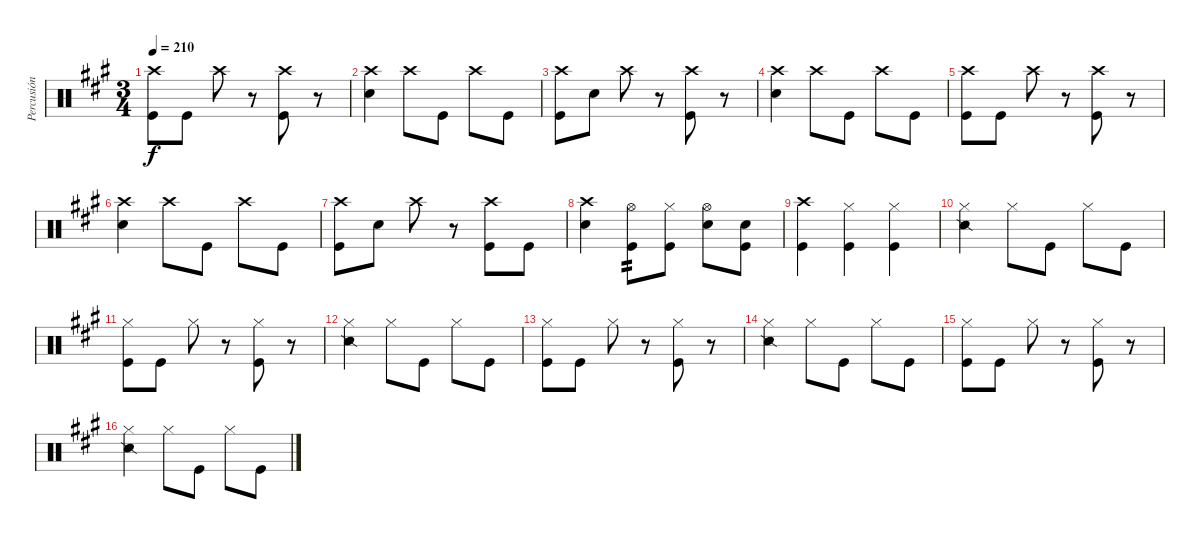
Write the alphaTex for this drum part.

\track ("Percusión" "Percusión") {instrument percussion}
\staff {score}
\articulation defaults
\ts (3 4)
\tempo 210
\clef neutral
\ks a
("Crash high (hit)" "Kick (hit)").8{dy f} "Kick (hit)".8 "Crash high (hit)".8 r.8 ("Crash high (hit)" "Kick (hit)").8 r.8 |
("Crash high (hit)" "Electric Snare (hit)").4 "Crash high (hit)".8 "Kick (hit)".8 "Crash high (hit)".8 "Kick (hit)".8 |
("Crash high (hit)" "Kick (hit)").8 "Electric Snare (hit)".8 "Crash high (hit)".8 r.8 ("Crash high (hit)" "Kick (hit)").8 r.8 |
("Crash high (hit)" "Electric Snare (hit)").4 "Crash high (hit)".8 "Kick (hit)".8 "Crash high (hit)".8 "Kick (hit)".8 |
("Crash high (hit)" "Kick (hit)").8 "Kick (hit)".8 "Crash high (hit)".8 r.8 ("Crash high (hit)" "Kick (hit)").8 r.8 |
("Crash high (hit)" "Electric Snare (hit)").4 "Crash high (hit)".8 "Kick (hit)".8 "Crash high (hit)".8 "Kick (hit)".8 |
("Crash high (hit)" "Kick (hit)").8 "Electric Snare (hit)".8 "Crash high (hit)".8 r.8 ("Crash high (hit)" "Kick (hit)").8 "Kick (hit)".8 |
("Crash high (hit)" "Electric Snare (hit)").4 ("Hi-Hat (open)" "Kick (hit)").8{tp 2} ("Hi-Hat (closed)" "Kick (hit)").8 ("Hi-Hat (open)" "Electric Snare (hit)").8 ("Electric Snare (hit)" "Kick (hit)").8 |
("Crash high (hit)" "Kick (hit)").4 ("Hi-Hat (closed)" "Kick (hit)").4 ("Hi-Hat (closed)" "Kick (hit)").4 |
("Hi-Hat (closed)" "Snare (side stick) 2").4 "Hi-Hat (closed)".8 "Kick (hit)".8 "Hi-Hat (closed)".8 "Kick (hit)".8 |
("Hi-Hat (closed)" "Kick (hit)").8 "Kick (hit)".8 "Hi-Hat (closed)".8 r.8 ("Hi-Hat (closed)" "Kick (hit)").8 r.8 |
("Hi-Hat (closed)" "Snare (side stick) 2").4 "Hi-Hat (closed)".8 "Kick (hit)".8 "Hi-Hat (closed)".8 "Kick (hit)".8 |
("Hi-Hat (closed)" "Kick (hit)").8 "Kick (hit)".8 "Hi-Hat (closed)".8 r.8 ("Hi-Hat (closed)" "Kick (hit)").8 r.8 |
("Hi-Hat (closed)" "Snare (side stick) 2").4 "Hi-Hat (closed)".8 "Kick (hit)".8 "Hi-Hat (closed)".8 "Kick (hit)".8 |
("Hi-Hat (closed)" "Kick (hit)").8 "Kick (hit)".8 "Hi-Hat (closed)".8 r.8 ("Hi-Hat (closed)" "Kick (hit)").8 r.8 |
("Hi-Hat (closed)" "Snare (side stick) 2").4 "Hi-Hat (closed)".8 "Kick (hit)".8 "Hi-Hat (closed)".8 "Kick (hit)".8
